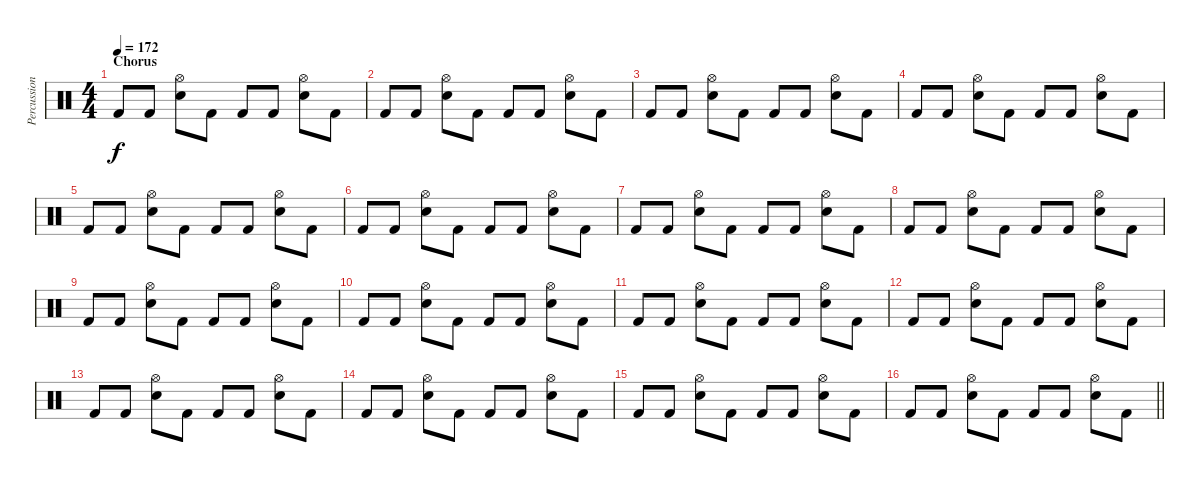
\track ("Percussion" "Percussion") {instrument percussion}
\staff {score}
\articulation defaults
\ts (4 4)
\section ("" "Chorus")
\tempo 172
\clef neutral
\ks c "Kick (hit) 2".8{dy f} "Kick (hit) 2".8
("Hi-Hat (open)" "Electric Snare (hit)").8 "Kick (hit) 2".8 "Kick (hit) 2".8 "Kick (hit) 2".8 ("Hi-Hat (open)" "Electric Snare (hit)").8 "Kick (hit) 2".8 |
"Kick (hit) 2".8 "Kick (hit) 2".8 ("Hi-Hat (open)" "Electric Snare (hit)").8 "Kick (hit) 2".8 "Kick (hit) 2".8 "Kick (hit) 2".8 ("Hi-Hat (open)" "Electric Snare (hit)").8 "Kick (hit) 2".8 |
"Kick (hit) 2".8 "Kick (hit) 2".8 ("Hi-Hat (open)" "Electric Snare (hit)").8 "Kick (hit) 2".8 "Kick (hit) 2".8 "Kick (hit) 2".8 ("Hi-Hat (open)" "Electric Snare (hit)").8 "Kick (hit) 2".8 |
"Kick (hit) 2".8 "Kick (hit) 2".8 ("Hi-Hat (open)" "Electric Snare (hit)").8 "Kick (hit) 2".8 "Kick (hit) 2".8 "Kick (hit) 2".8 ("Hi-Hat (open)" "Electric Snare (hit)").8 "Kick (hit) 2".8 |
"Kick (hit) 2".8 "Kick (hit) 2".8 ("Hi-Hat (open)" "Electric Snare (hit)").8 "Kick (hit) 2".8 "Kick (hit) 2".8 "Kick (hit) 2".8 ("Hi-Hat (open)" "Electric Snare (hit)").8 "Kick (hit) 2".8 |
"Kick (hit) 2".8 "Kick (hit) 2".8 ("Hi-Hat (open)" "Electric Snare (hit)").8 "Kick (hit) 2".8 "Kick (hit) 2".8 "Kick (hit) 2".8 ("Hi-Hat (open)" "Electric Snare (hit)").8 "Kick (hit) 2".8 |
"Kick (hit) 2".8 "Kick (hit) 2".8 ("Hi-Hat (open)" "Electric Snare (hit)").8 "Kick (hit) 2".8 "Kick (hit) 2".8 "Kick (hit) 2".8 ("Hi-Hat (open)" "Electric Snare (hit)").8 "Kick (hit) 2".8 |
"Kick (hit) 2".8 "Kick (hit) 2".8 ("Hi-Hat (open)" "Electric Snare (hit)").8 "Kick (hit) 2".8 "Kick (hit) 2".8 "Kick (hit) 2".8 ("Hi-Hat (open)" "Electric Snare (hit)").8 "Kick (hit) 2".8 |
"Kick (hit) 2".8 "Kick (hit) 2".8 ("Hi-Hat (open)" "Electric Snare (hit)").8 "Kick (hit) 2".8 "Kick (hit) 2".8 "Kick (hit) 2".8 ("Hi-Hat (open)" "Electric Snare (hit)").8 "Kick (hit) 2".8 |
"Kick (hit) 2".8 "Kick (hit) 2".8 ("Hi-Hat (open)" "Electric Snare (hit)").8 "Kick (hit) 2".8 "Kick (hit) 2".8 "Kick (hit) 2".8 ("Hi-Hat (open)" "Electric Snare (hit)").8 "Kick (hit) 2".8 |
"Kick (hit) 2".8 "Kick (hit) 2".8 ("Hi-Hat (open)" "Electric Snare (hit)").8 "Kick (hit) 2".8 "Kick (hit) 2".8 "Kick (hit) 2".8 ("Hi-Hat (open)" "Electric Snare (hit)").8 "Kick (hit) 2".8 |
"Kick (hit) 2".8 "Kick (hit) 2".8 ("Hi-Hat (open)" "Electric Snare (hit)").8 "Kick (hit) 2".8 "Kick (hit) 2".8 "Kick (hit) 2".8 ("Hi-Hat (open)" "Electric Snare (hit)").8 "Kick (hit) 2".8 |
"Kick (hit) 2".8 "Kick (hit) 2".8 ("Hi-Hat (open)" "Electric Snare (hit)").8 "Kick (hit) 2".8 "Kick (hit) 2".8 "Kick (hit) 2".8 ("Hi-Hat (open)" "Electric Snare (hit)").8 "Kick (hit) 2".8 |
"Kick (hit) 2".8 "Kick (hit) 2".8 ("Hi-Hat (open)" "Electric Snare (hit)").8 "Kick (hit) 2".8 "Kick (hit) 2".8 "Kick (hit) 2".8 ("Hi-Hat (open)" "Electric Snare (hit)").8 "Kick (hit) 2".8 |
"Kick (hit) 2".8 "Kick (hit) 2".8 ("Hi-Hat (open)" "Electric Snare (hit)").8 "Kick (hit) 2".8 "Kick (hit) 2".8 "Kick (hit) 2".8 ("Hi-Hat (open)" "Electric Snare (hit)").8 "Kick (hit) 2".8 |
\barLineRight lightlight "Kick (hit) 2".8 "Kick (hit) 2".8
("Hi-Hat (open)" "Electric Snare (hit)").8 "Kick (hit) 2".8 "Kick (hit) 2".8 "Kick (hit) 2".8 ("Hi-Hat (open)" "Electric Snare (hit)").8 "Kick (hit) 2".8
